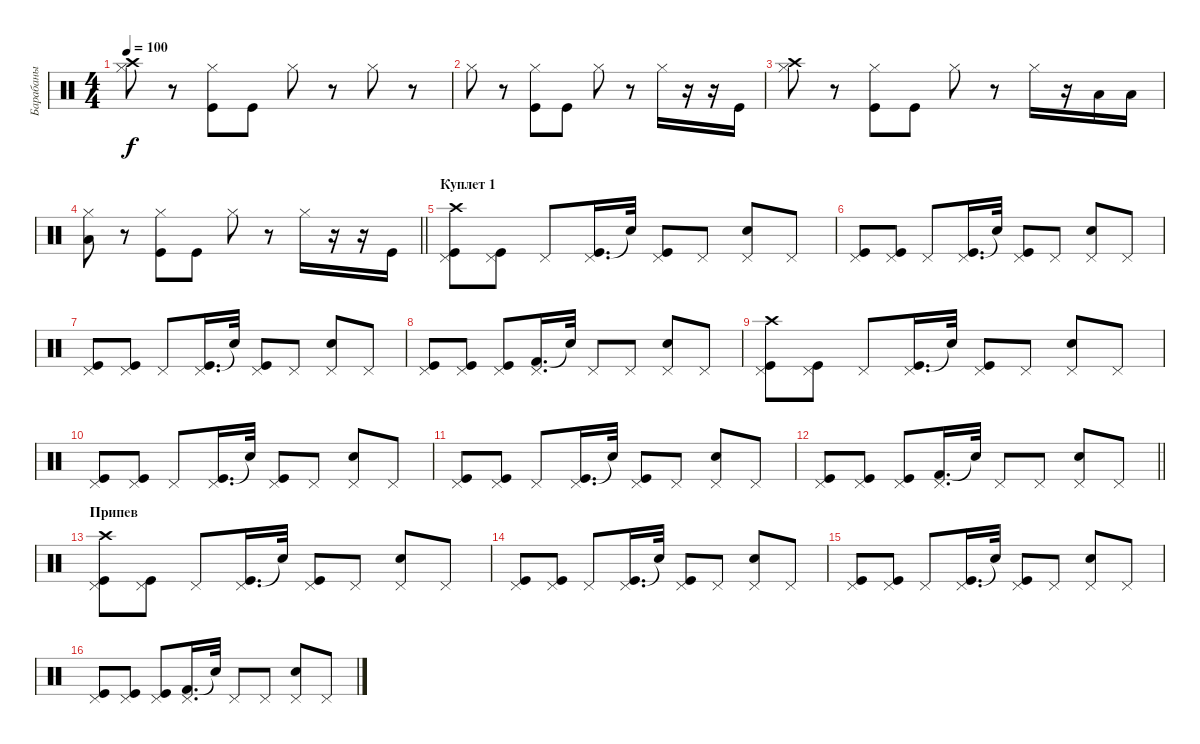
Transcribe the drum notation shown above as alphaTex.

\track ("Барабаны" "Барабаны") {instrument percussion}
\staff {score}
\articulation defaults
\ts (4 4)
\tempo 100
\clef neutral
\ks c
("Crash high (hit)" "Hi-Hat (closed)").8{dy f} r.8 ("Kick (hit)" "Hi-Hat (closed)").8 "Kick (hit)".8 "Hi-Hat (closed)".8 r.8 "Hi-Hat (closed)".8 r.8 |
"Hi-Hat (closed)".8 r.8 ("Kick (hit)" "Hi-Hat (closed)").8 "Kick (hit)".8 "Hi-Hat (closed)".8 r.8 "Hi-Hat (closed)".16 r.16 r.16 "Kick (hit)".16 |
("Crash high (hit)" "Hi-Hat (closed)").8 r.8 ("Kick (hit)" "Hi-Hat (closed)").8 "Kick (hit)".8 "Hi-Hat (closed)".8 r.8 "Hi-Hat (closed)".16 r.16 "Low Tom (hit)".16 "Low Tom (hit)".16 |
\barLineRight lightlight
("Low Tom (hit)" "Hi-Hat (closed)").8 r.8 ("Kick (hit)" "Hi-Hat (closed)").8 "Kick (hit)".8 "Hi-Hat (closed)".8 r.8 "Hi-Hat (closed)".16 r.16 r.16 "Kick (hit)".16 |
\section ("" "Куплет 1")
("Crash high (hit)" "Kick (hit)" "Pedal Hi-Hat (hit)").8 ("Kick (hit)" "Pedal Hi-Hat (hit)").8 "Pedal Hi-Hat (hit)".8 ("Kick (hit)" "Pedal Hi-Hat (hit)").16{d} "Snare (hit)"{t}.32 ("Kick (hit)" "Pedal Hi-Hat (hit)").8 "Pedal Hi-Hat (hit)".8 ("Snare (hit) 2" "Pedal Hi-Hat (hit)").8 "Pedal Hi-Hat (hit)".8 |
("Kick (hit)" "Pedal Hi-Hat (hit)").8 ("Kick (hit)" "Pedal Hi-Hat (hit)").8 "Pedal Hi-Hat (hit)".8 ("Kick (hit)" "Pedal Hi-Hat (hit)").16{d} "Snare (hit)"{t}.32 ("Kick (hit)" "Pedal Hi-Hat (hit)").8 "Pedal Hi-Hat (hit)".8 ("Snare (hit) 2" "Pedal Hi-Hat (hit)").8 "Pedal Hi-Hat (hit)".8 |
("Kick (hit)" "Pedal Hi-Hat (hit)").8 ("Kick (hit)" "Pedal Hi-Hat (hit)").8 "Pedal Hi-Hat (hit)".8 ("Kick (hit)" "Pedal Hi-Hat (hit)").16{d} "Snare (hit)"{t}.32 ("Kick (hit)" "Pedal Hi-Hat (hit)").8 "Pedal Hi-Hat (hit)".8 ("Snare (hit) 2" "Pedal Hi-Hat (hit)").8 "Pedal Hi-Hat (hit)".8 |
("Kick (hit)" "Pedal Hi-Hat (hit)").8 ("Kick (hit)" "Pedal Hi-Hat (hit)").8 ("Kick (hit)" "Pedal Hi-Hat (hit)").8 ("Kick (hit) 2" "Pedal Hi-Hat (hit)").16{d} "Snare (hit)"{t}.32 "Pedal Hi-Hat (hit)".8 "Pedal Hi-Hat (hit)".8 ("Snare (hit) 2" "Pedal Hi-Hat (hit)").8 "Pedal Hi-Hat (hit)".8 |
("Crash high (hit)" "Kick (hit)" "Pedal Hi-Hat (hit)").8 ("Kick (hit)" "Pedal Hi-Hat (hit)").8 "Pedal Hi-Hat (hit)".8 ("Kick (hit)" "Pedal Hi-Hat (hit)").16{d} "Snare (hit)"{t}.32 ("Kick (hit)" "Pedal Hi-Hat (hit)").8 "Pedal Hi-Hat (hit)".8 ("Snare (hit) 2" "Pedal Hi-Hat (hit)").8 "Pedal Hi-Hat (hit)".8 |
("Kick (hit)" "Pedal Hi-Hat (hit)").8 ("Kick (hit)" "Pedal Hi-Hat (hit)").8 "Pedal Hi-Hat (hit)".8 ("Kick (hit)" "Pedal Hi-Hat (hit)").16{d} "Snare (hit)"{t}.32 ("Kick (hit)" "Pedal Hi-Hat (hit)").8 "Pedal Hi-Hat (hit)".8 ("Snare (hit) 2" "Pedal Hi-Hat (hit)").8 "Pedal Hi-Hat (hit)".8 |
("Kick (hit)" "Pedal Hi-Hat (hit)").8 ("Kick (hit)" "Pedal Hi-Hat (hit)").8 "Pedal Hi-Hat (hit)".8 ("Kick (hit)" "Pedal Hi-Hat (hit)").16{d} "Snare (hit)"{t}.32 ("Kick (hit)" "Pedal Hi-Hat (hit)").8 "Pedal Hi-Hat (hit)".8 ("Snare (hit) 2" "Pedal Hi-Hat (hit)").8 "Pedal Hi-Hat (hit)".8 |
\barLineRight lightlight
("Kick (hit)" "Pedal Hi-Hat (hit)").8 ("Kick (hit)" "Pedal Hi-Hat (hit)").8 ("Kick (hit)" "Pedal Hi-Hat (hit)").8 ("Kick (hit) 2" "Pedal Hi-Hat (hit)").16{d} "Snare (hit)"{t}.32 "Pedal Hi-Hat (hit)".8 "Pedal Hi-Hat (hit)".8 ("Snare (hit) 2" "Pedal Hi-Hat (hit)").8 "Pedal Hi-Hat (hit)".8 |
\section ("" "Припев")
("Crash high (hit)" "Kick (hit)" "Pedal Hi-Hat (hit)").8 ("Kick (hit)" "Pedal Hi-Hat (hit)").8 "Pedal Hi-Hat (hit)".8 ("Kick (hit)" "Pedal Hi-Hat (hit)").16{d} "Snare (hit)"{t}.32 ("Kick (hit)" "Pedal Hi-Hat (hit)").8 "Pedal Hi-Hat (hit)".8 ("Snare (hit) 2" "Pedal Hi-Hat (hit)").8 "Pedal Hi-Hat (hit)".8 |
("Kick (hit)" "Pedal Hi-Hat (hit)").8 ("Kick (hit)" "Pedal Hi-Hat (hit)").8 "Pedal Hi-Hat (hit)".8 ("Kick (hit)" "Pedal Hi-Hat (hit)").16{d} "Snare (hit)"{t}.32 ("Kick (hit)" "Pedal Hi-Hat (hit)").8 "Pedal Hi-Hat (hit)".8 ("Snare (hit) 2" "Pedal Hi-Hat (hit)").8 "Pedal Hi-Hat (hit)".8 |
("Kick (hit)" "Pedal Hi-Hat (hit)").8 ("Kick (hit)" "Pedal Hi-Hat (hit)").8 "Pedal Hi-Hat (hit)".8 ("Kick (hit)" "Pedal Hi-Hat (hit)").16{d} "Snare (hit)"{t}.32 ("Kick (hit)" "Pedal Hi-Hat (hit)").8 "Pedal Hi-Hat (hit)".8 ("Snare (hit) 2" "Pedal Hi-Hat (hit)").8 "Pedal Hi-Hat (hit)".8 |
("Kick (hit)" "Pedal Hi-Hat (hit)").8 ("Kick (hit)" "Pedal Hi-Hat (hit)").8 ("Kick (hit)" "Pedal Hi-Hat (hit)").8 ("Kick (hit) 2" "Pedal Hi-Hat (hit)").16{d} "Snare (hit)"{t}.32 "Pedal Hi-Hat (hit)".8 "Pedal Hi-Hat (hit)".8 ("Snare (hit) 2" "Pedal Hi-Hat (hit)").8 "Pedal Hi-Hat (hit)".8
